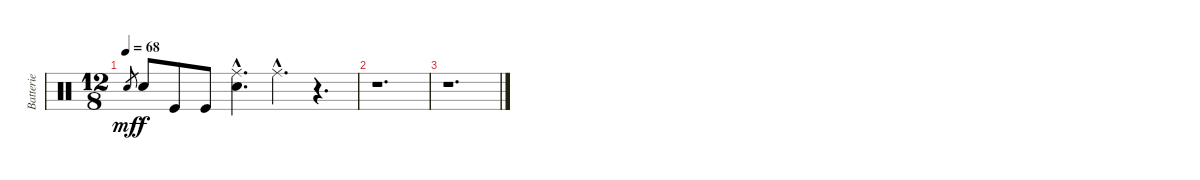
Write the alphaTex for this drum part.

\track ("Batterie" "Batterie") {instrument percussion}
\staff {score}
\articulation defaults
\ts (12 8)
\tempo 68
\clef neutral
\ks c "Snare (hit) 2".8{gr dy mf} "Snare (hit) 2".8{dy f} "Kick (hit)".8 "Kick (hit)".8
("Ride (middle)"{hac} "Snare (hit) 2"{hac}).4{d} "Ride (middle)"{hac}.4{d} r.4{d} |
r.1{d} |
r.1{d}
